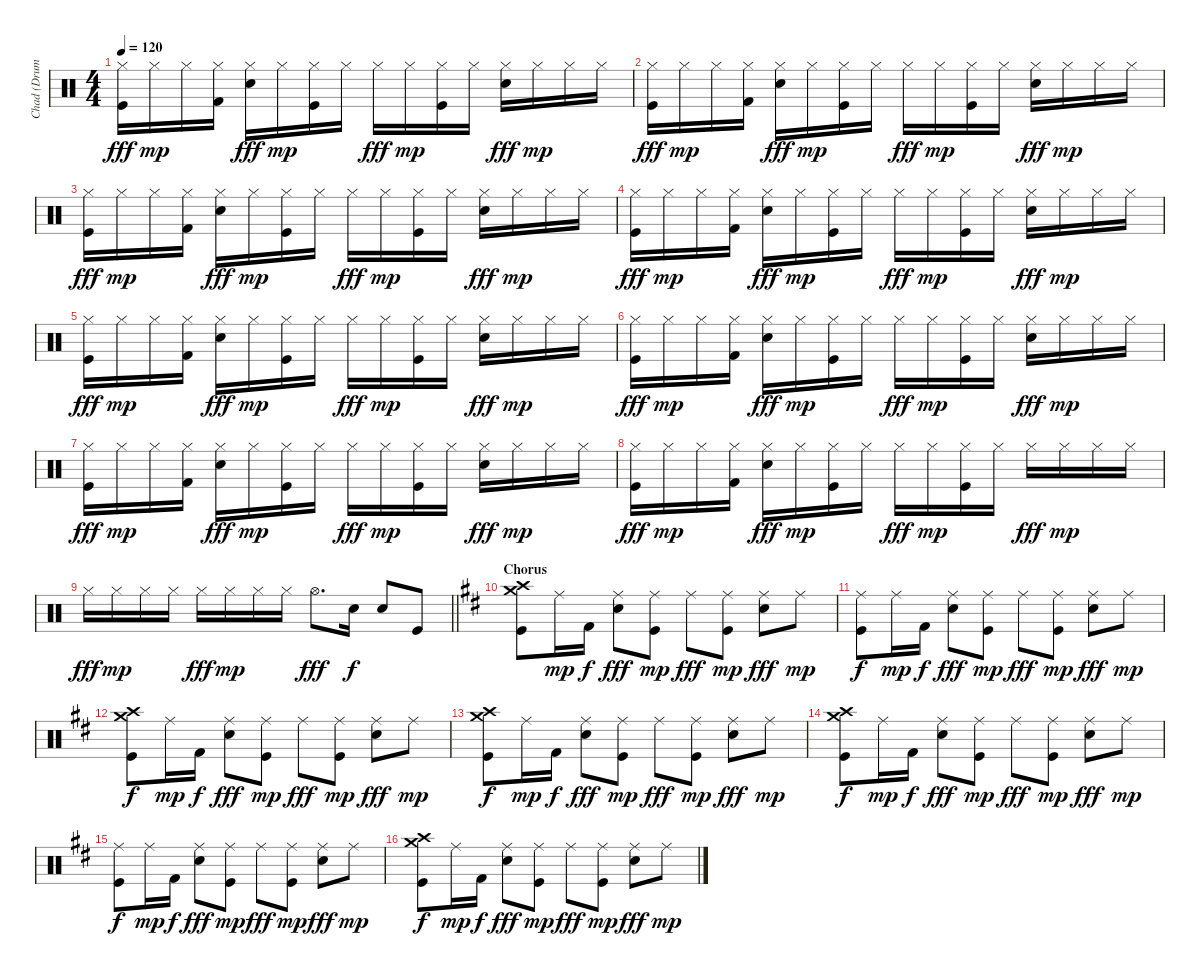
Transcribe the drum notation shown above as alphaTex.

\track ("Chad (Drums)" "Chad (Drum") {instrument percussion}
\staff {score}
\articulation defaults
\ts (4 4)
\tempo 120
\clef neutral
\ks c
("Hi-Hat (closed)" "Kick (hit)").16{dy fff} "Hi-Hat (closed)".16{dy mp} "Hi-Hat (closed)".16 ("Hi-Hat (closed)" "Kick (hit) 2").16 ("Hi-Hat (closed)" "Snare (hit) 2").16{dy fff} "Hi-Hat (closed)".16{dy mp} ("Hi-Hat (closed)" "Kick (hit)").16 "Hi-Hat (closed)".16 "Hi-Hat (closed)".16{dy fff} "Hi-Hat (closed)".16{dy mp} ("Hi-Hat (closed)" "Kick (hit)").16 "Hi-Hat (closed)".16 ("Hi-Hat (closed)" "Snare (hit) 2").16{dy fff} "Hi-Hat (closed)".16{dy mp} "Hi-Hat (closed)".16 "Hi-Hat (closed)".16 |
("Hi-Hat (closed)" "Kick (hit)").16{dy fff} "Hi-Hat (closed)".16{dy mp} "Hi-Hat (closed)".16 ("Hi-Hat (closed)" "Kick (hit) 2").16 ("Hi-Hat (closed)" "Snare (hit) 2").16{dy fff} "Hi-Hat (closed)".16{dy mp} ("Hi-Hat (closed)" "Kick (hit)").16 "Hi-Hat (closed)".16 "Hi-Hat (closed)".16{dy fff} "Hi-Hat (closed)".16{dy mp} ("Hi-Hat (closed)" "Kick (hit)").16 "Hi-Hat (closed)".16 ("Hi-Hat (closed)" "Snare (hit) 2").16{dy fff} "Hi-Hat (closed)".16{dy mp} "Hi-Hat (closed)".16 "Hi-Hat (closed)".16 |
("Hi-Hat (closed)" "Kick (hit)").16{dy fff} "Hi-Hat (closed)".16{dy mp} "Hi-Hat (closed)".16 ("Hi-Hat (closed)" "Kick (hit) 2").16 ("Hi-Hat (closed)" "Snare (hit) 2").16{dy fff} "Hi-Hat (closed)".16{dy mp} ("Hi-Hat (closed)" "Kick (hit)").16 "Hi-Hat (closed)".16 "Hi-Hat (closed)".16{dy fff} "Hi-Hat (closed)".16{dy mp} ("Hi-Hat (closed)" "Kick (hit)").16 "Hi-Hat (closed)".16 ("Hi-Hat (closed)" "Snare (hit) 2").16{dy fff} "Hi-Hat (closed)".16{dy mp} "Hi-Hat (closed)".16 "Hi-Hat (closed)".16 |
("Hi-Hat (closed)" "Kick (hit)").16{dy fff} "Hi-Hat (closed)".16{dy mp} "Hi-Hat (closed)".16 ("Hi-Hat (closed)" "Kick (hit) 2").16 ("Hi-Hat (closed)" "Snare (hit) 2").16{dy fff} "Hi-Hat (closed)".16{dy mp} ("Hi-Hat (closed)" "Kick (hit)").16 "Hi-Hat (closed)".16 "Hi-Hat (closed)".16{dy fff} "Hi-Hat (closed)".16{dy mp} ("Hi-Hat (closed)" "Kick (hit)").16 "Hi-Hat (closed)".16 ("Hi-Hat (closed)" "Snare (hit) 2").16{dy fff} "Hi-Hat (closed)".16{dy mp} "Hi-Hat (closed)".16 "Hi-Hat (closed)".16 |
("Hi-Hat (closed)" "Kick (hit)").16{dy fff} "Hi-Hat (closed)".16{dy mp} "Hi-Hat (closed)".16 ("Hi-Hat (closed)" "Kick (hit) 2").16 ("Hi-Hat (closed)" "Snare (hit) 2").16{dy fff} "Hi-Hat (closed)".16{dy mp} ("Hi-Hat (closed)" "Kick (hit)").16 "Hi-Hat (closed)".16 "Hi-Hat (closed)".16{dy fff} "Hi-Hat (closed)".16{dy mp} ("Hi-Hat (closed)" "Kick (hit)").16 "Hi-Hat (closed)".16 ("Hi-Hat (closed)" "Snare (hit) 2").16{dy fff} "Hi-Hat (closed)".16{dy mp} "Hi-Hat (closed)".16 "Hi-Hat (closed)".16 |
("Hi-Hat (closed)" "Kick (hit)").16{dy fff} "Hi-Hat (closed)".16{dy mp} "Hi-Hat (closed)".16 ("Hi-Hat (closed)" "Kick (hit) 2").16 ("Hi-Hat (closed)" "Snare (hit) 2").16{dy fff} "Hi-Hat (closed)".16{dy mp} ("Hi-Hat (closed)" "Kick (hit)").16 "Hi-Hat (closed)".16 "Hi-Hat (closed)".16{dy fff} "Hi-Hat (closed)".16{dy mp} ("Hi-Hat (closed)" "Kick (hit)").16 "Hi-Hat (closed)".16 ("Hi-Hat (closed)" "Snare (hit) 2").16{dy fff} "Hi-Hat (closed)".16{dy mp} "Hi-Hat (closed)".16 "Hi-Hat (closed)".16 |
("Hi-Hat (closed)" "Kick (hit)").16{dy fff} "Hi-Hat (closed)".16{dy mp} "Hi-Hat (closed)".16 ("Hi-Hat (closed)" "Kick (hit) 2").16 ("Hi-Hat (closed)" "Snare (hit) 2").16{dy fff} "Hi-Hat (closed)".16{dy mp} ("Hi-Hat (closed)" "Kick (hit)").16 "Hi-Hat (closed)".16 "Hi-Hat (closed)".16{dy fff} "Hi-Hat (closed)".16{dy mp} ("Hi-Hat (closed)" "Kick (hit)").16 "Hi-Hat (closed)".16 ("Hi-Hat (closed)" "Snare (hit) 2").16{dy fff} "Hi-Hat (closed)".16{dy mp} "Hi-Hat (closed)".16 "Hi-Hat (closed)".16 |
("Hi-Hat (closed)" "Kick (hit)").16{dy fff} "Hi-Hat (closed)".16{dy mp} "Hi-Hat (closed)".16 ("Hi-Hat (closed)" "Kick (hit) 2").16 ("Hi-Hat (closed)" "Snare (hit) 2").16{dy fff} "Hi-Hat (closed)".16{dy mp} ("Hi-Hat (closed)" "Kick (hit)").16 "Hi-Hat (closed)".16 "Hi-Hat (closed)".16{dy fff} "Hi-Hat (closed)".16{dy mp} ("Hi-Hat (closed)" "Kick (hit)").16 "Hi-Hat (closed)".16 "Hi-Hat (closed)".16{dy fff} "Hi-Hat (closed)".16{dy mp} "Hi-Hat (closed)".16 "Hi-Hat (closed)".16 |
\barLineRight lightlight "Hi-Hat (closed)".16{dy fff} "Hi-Hat (closed)".16{dy mp} "Hi-Hat (closed)".16 "Hi-Hat (closed)".16 "Hi-Hat (closed)".16{dy fff} "Hi-Hat (closed)".16{dy mp} "Hi-Hat (closed)".16 "Hi-Hat (closed)".16 "Hi-Hat (open)".8{d dy fff} "Snare (hit) 2".16{dy f} "Snare (hit) 2".8 "Kick (hit)".8
|
\section ("" "Chorus")
\ks d
("Crash high (hit)" "Crash medium (hit)" "Kick (hit)").8 "Ride (middle)".16{dy mp} "Kick (hit) 2".16{dy f} ("Ride (middle)" "Snare (hit) 2").8{dy fff} ("Ride (middle)" "Kick (hit)").8{dy mp} "Ride (middle)".8{dy fff} ("Ride (middle)" "Kick (hit)").8{dy mp} ("Ride (middle)" "Snare (hit) 2").8{dy fff} "Ride (middle)".8{dy mp} |
("Ride (middle)" "Kick (hit)").8{dy f} "Ride (middle)".16{dy mp} "Kick (hit) 2".16{dy f} ("Ride (middle)" "Snare (hit) 2").8{dy fff} ("Ride (middle)" "Kick (hit)").8{dy mp} "Ride (middle)".8{dy fff} ("Ride (middle)" "Kick (hit)").8{dy mp} ("Ride (middle)" "Snare (hit) 2").8{dy fff} "Ride (middle)".8{dy mp} |
("Crash high (hit)" "Crash medium (hit)" "Kick (hit)").8{dy f} "Ride (middle)".16{dy mp} "Kick (hit) 2".16{dy f} ("Ride (middle)" "Snare (hit) 2").8{dy fff} ("Ride (middle)" "Kick (hit)").8{dy mp} "Ride (middle)".8{dy fff} ("Ride (middle)" "Kick (hit)").8{dy mp} ("Ride (middle)" "Snare (hit) 2").8{dy fff} "Ride (middle)".8{dy mp} |
("Crash high (hit)" "Crash medium (hit)" "Kick (hit)").8{dy f} "Ride (middle)".16{dy mp} "Kick (hit) 2".16{dy f} ("Ride (middle)" "Snare (hit) 2").8{dy fff} ("Ride (middle)" "Kick (hit)").8{dy mp} "Ride (middle)".8{dy fff} ("Ride (middle)" "Kick (hit)").8{dy mp} ("Ride (middle)" "Snare (hit) 2").8{dy fff} "Ride (middle)".8{dy mp} |
("Crash high (hit)" "Crash medium (hit)" "Kick (hit)").8{dy f} "Ride (middle)".16{dy mp} "Kick (hit) 2".16{dy f} ("Ride (middle)" "Snare (hit) 2").8{dy fff} ("Ride (middle)" "Kick (hit)").8{dy mp} "Ride (middle)".8{dy fff} ("Ride (middle)" "Kick (hit)").8{dy mp} ("Ride (middle)" "Snare (hit) 2").8{dy fff} "Ride (middle)".8{dy mp} |
("Ride (middle)" "Kick (hit)").8{dy f} "Ride (middle)".16{dy mp} "Kick (hit) 2".16{dy f} ("Ride (middle)" "Snare (hit) 2").8{dy fff} ("Ride (middle)" "Kick (hit)").8{dy mp} "Ride (middle)".8{dy fff} ("Ride (middle)" "Kick (hit)").8{dy mp} ("Ride (middle)" "Snare (hit) 2").8{dy fff} "Ride (middle)".8{dy mp} |
("Crash high (hit)" "Crash medium (hit)" "Kick (hit)").8{dy f} "Ride (middle)".16{dy mp} "Kick (hit) 2".16{dy f} ("Ride (middle)" "Snare (hit) 2").8{dy fff} ("Ride (middle)" "Kick (hit)").8{dy mp} "Ride (middle)".8{dy fff} ("Ride (middle)" "Kick (hit)").8{dy mp} ("Ride (middle)" "Snare (hit) 2").8{dy fff} "Ride (middle)".8{dy mp}
